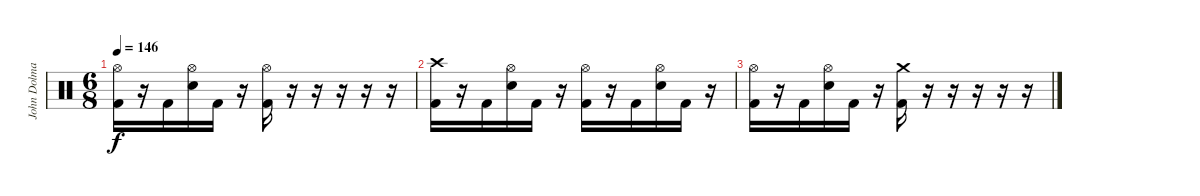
\track ("John Dolmayan" "John Dolma") {instrument percussion}
\staff {score}
\articulation defaults
\ts (6 8)
\tempo 146
\clef neutral
\ks c
("Hi-Hat (open)" "Kick (hit) 2").16{dy f volume 16} r.16 "Kick (hit) 2".16 ("Hi-Hat (open)" "Electric Snare (hit)").16 "Kick (hit) 2".16 r.16 ("Hi-Hat (open)" "Kick (hit) 2").16 r.16{volume 0} r.16 r.16 r.16 r.16 |
("Crash high (hit)" "Kick (hit) 2").16{volume 16} r.16 "Kick (hit) 2".16 ("Hi-Hat (open)" "Electric Snare (hit)").16 "Kick (hit) 2".16 r.16 ("Hi-Hat (open)" "Kick (hit) 2").16 r.16 "Kick (hit) 2".16 ("Hi-Hat (open)" "Electric Snare (hit)").16 "Kick (hit) 2".16 r.16 |
("Hi-Hat (open)" "Kick (hit) 2").16 r.16 "Kick (hit) 2".16 ("Hi-Hat (open)" "Electric Snare (hit)").16 "Kick (hit) 2".16 r.16 ("Crash medium (hit)" "Kick (hit) 2").16 r.16 r.16 r.16 r.16 r.16
